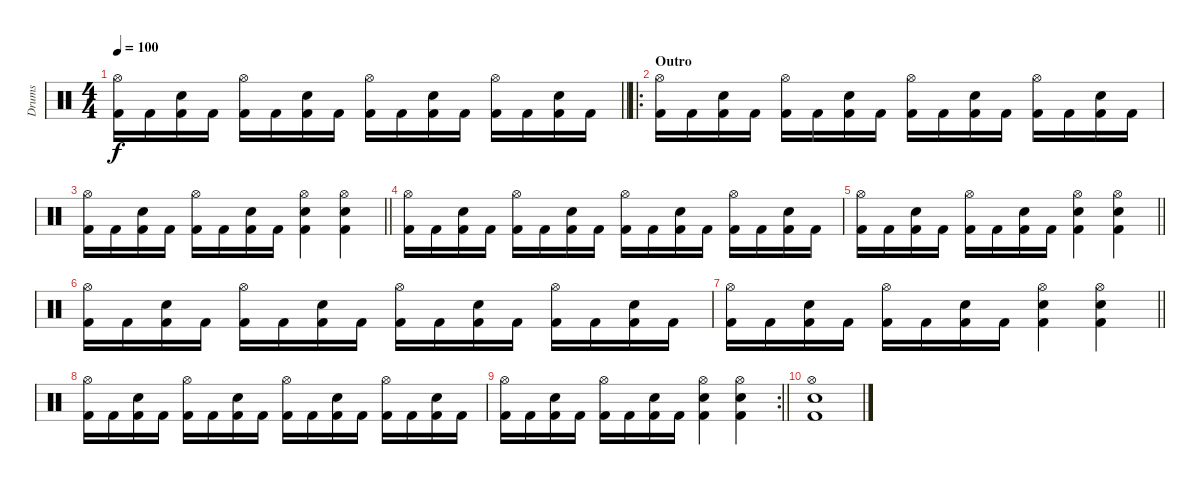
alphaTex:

\track ("Drums" "Drums") {instrument percussion}
\staff {score}
\articulation defaults
\ts (4 4)
\tempo 100
\clef neutral
\barLineRight lightlight
\ks c
("Hi-Hat (open)" "Kick (hit) 2").16{dy f} "Kick (hit) 2".16 ("Snare (hit) 2" "Kick (hit) 2").16 "Kick (hit) 2".16 ("Hi-Hat (open)" "Kick (hit) 2").16 "Kick (hit) 2".16 ("Snare (hit) 2" "Kick (hit) 2").16 "Kick (hit) 2".16 ("Hi-Hat (open)" "Kick (hit) 2").16 "Kick (hit) 2".16 ("Snare (hit) 2" "Kick (hit) 2").16 "Kick (hit) 2".16 ("Hi-Hat (open)" "Kick (hit) 2").16 "Kick (hit) 2".16 ("Snare (hit) 2" "Kick (hit) 2").16 "Kick (hit) 2".16 |
\ro
\section ("" "Outro")
("Hi-Hat (open)" "Kick (hit) 2").16 "Kick (hit) 2".16 ("Snare (hit) 2" "Kick (hit) 2").16 "Kick (hit) 2".16 ("Hi-Hat (open)" "Kick (hit) 2").16 "Kick (hit) 2".16 ("Snare (hit) 2" "Kick (hit) 2").16 "Kick (hit) 2".16 ("Hi-Hat (open)" "Kick (hit) 2").16 "Kick (hit) 2".16 ("Snare (hit) 2" "Kick (hit) 2").16 "Kick (hit) 2".16 ("Hi-Hat (open)" "Kick (hit) 2").16 "Kick (hit) 2".16 ("Snare (hit) 2" "Kick (hit) 2").16 "Kick (hit) 2".16 |
\barLineRight lightlight
("Hi-Hat (open)" "Kick (hit) 2").16 "Kick (hit) 2".16 ("Snare (hit) 2" "Kick (hit) 2").16 "Kick (hit) 2".16 ("Hi-Hat (open)" "Kick (hit) 2").16 "Kick (hit) 2".16 ("Snare (hit) 2" "Kick (hit) 2").16 "Kick (hit) 2".16 ("Hi-Hat (open)" "Snare (hit) 2" "Kick (hit) 2").4 ("Hi-Hat (open)" "Snare (hit) 2" "Kick (hit) 2").4 |
("Hi-Hat (open)" "Kick (hit) 2").16 "Kick (hit) 2".16 ("Snare (hit) 2" "Kick (hit) 2").16 "Kick (hit) 2".16 ("Hi-Hat (open)" "Kick (hit) 2").16 "Kick (hit) 2".16 ("Snare (hit) 2" "Kick (hit) 2").16 "Kick (hit) 2".16 ("Hi-Hat (open)" "Kick (hit) 2").16 "Kick (hit) 2".16 ("Snare (hit) 2" "Kick (hit) 2").16 "Kick (hit) 2".16 ("Hi-Hat (open)" "Kick (hit) 2").16 "Kick (hit) 2".16 ("Snare (hit) 2" "Kick (hit) 2").16 "Kick (hit) 2".16 |
\barLineRight lightlight
("Hi-Hat (open)" "Kick (hit) 2").16 "Kick (hit) 2".16 ("Snare (hit) 2" "Kick (hit) 2").16 "Kick (hit) 2".16 ("Hi-Hat (open)" "Kick (hit) 2").16 "Kick (hit) 2".16 ("Snare (hit) 2" "Kick (hit) 2").16 "Kick (hit) 2".16 ("Hi-Hat (open)" "Snare (hit) 2" "Kick (hit) 2").4 ("Hi-Hat (open)" "Snare (hit) 2" "Kick (hit) 2").4 |
("Hi-Hat (open)" "Kick (hit) 2").16 "Kick (hit) 2".16 ("Snare (hit) 2" "Kick (hit) 2").16 "Kick (hit) 2".16 ("Hi-Hat (open)" "Kick (hit) 2").16 "Kick (hit) 2".16 ("Snare (hit) 2" "Kick (hit) 2").16 "Kick (hit) 2".16 ("Hi-Hat (open)" "Kick (hit) 2").16 "Kick (hit) 2".16 ("Snare (hit) 2" "Kick (hit) 2").16 "Kick (hit) 2".16 ("Hi-Hat (open)" "Kick (hit) 2").16 "Kick (hit) 2".16 ("Snare (hit) 2" "Kick (hit) 2").16 "Kick (hit) 2".16 |
\barLineRight lightlight
("Hi-Hat (open)" "Kick (hit) 2").16 "Kick (hit) 2".16 ("Snare (hit) 2" "Kick (hit) 2").16 "Kick (hit) 2".16 ("Hi-Hat (open)" "Kick (hit) 2").16 "Kick (hit) 2".16 ("Snare (hit) 2" "Kick (hit) 2").16 "Kick (hit) 2".16 ("Hi-Hat (open)" "Snare (hit) 2" "Kick (hit) 2").4 ("Hi-Hat (open)" "Snare (hit) 2" "Kick (hit) 2").4 |
("Hi-Hat (open)" "Kick (hit) 2").16 "Kick (hit) 2".16 ("Snare (hit) 2" "Kick (hit) 2").16 "Kick (hit) 2".16 ("Hi-Hat (open)" "Kick (hit) 2").16 "Kick (hit) 2".16 ("Snare (hit) 2" "Kick (hit) 2").16 "Kick (hit) 2".16 ("Hi-Hat (open)" "Kick (hit) 2").16 "Kick (hit) 2".16 ("Snare (hit) 2" "Kick (hit) 2").16 "Kick (hit) 2".16 ("Hi-Hat (open)" "Kick (hit) 2").16 "Kick (hit) 2".16 ("Snare (hit) 2" "Kick (hit) 2").16 "Kick (hit) 2".16 |
\rc 2
\barLineRight lightlight
("Hi-Hat (open)" "Kick (hit) 2").16 "Kick (hit) 2".16 ("Snare (hit) 2" "Kick (hit) 2").16 "Kick (hit) 2".16 ("Hi-Hat (open)" "Kick (hit) 2").16 "Kick (hit) 2".16 ("Snare (hit) 2" "Kick (hit) 2").16 "Kick (hit) 2".16 ("Hi-Hat (open)" "Snare (hit) 2" "Kick (hit) 2").4 ("Hi-Hat (open)" "Snare (hit) 2" "Kick (hit) 2").4 |
("Hi-Hat (open)" "Snare (hit) 2" "Kick (hit) 2").1
